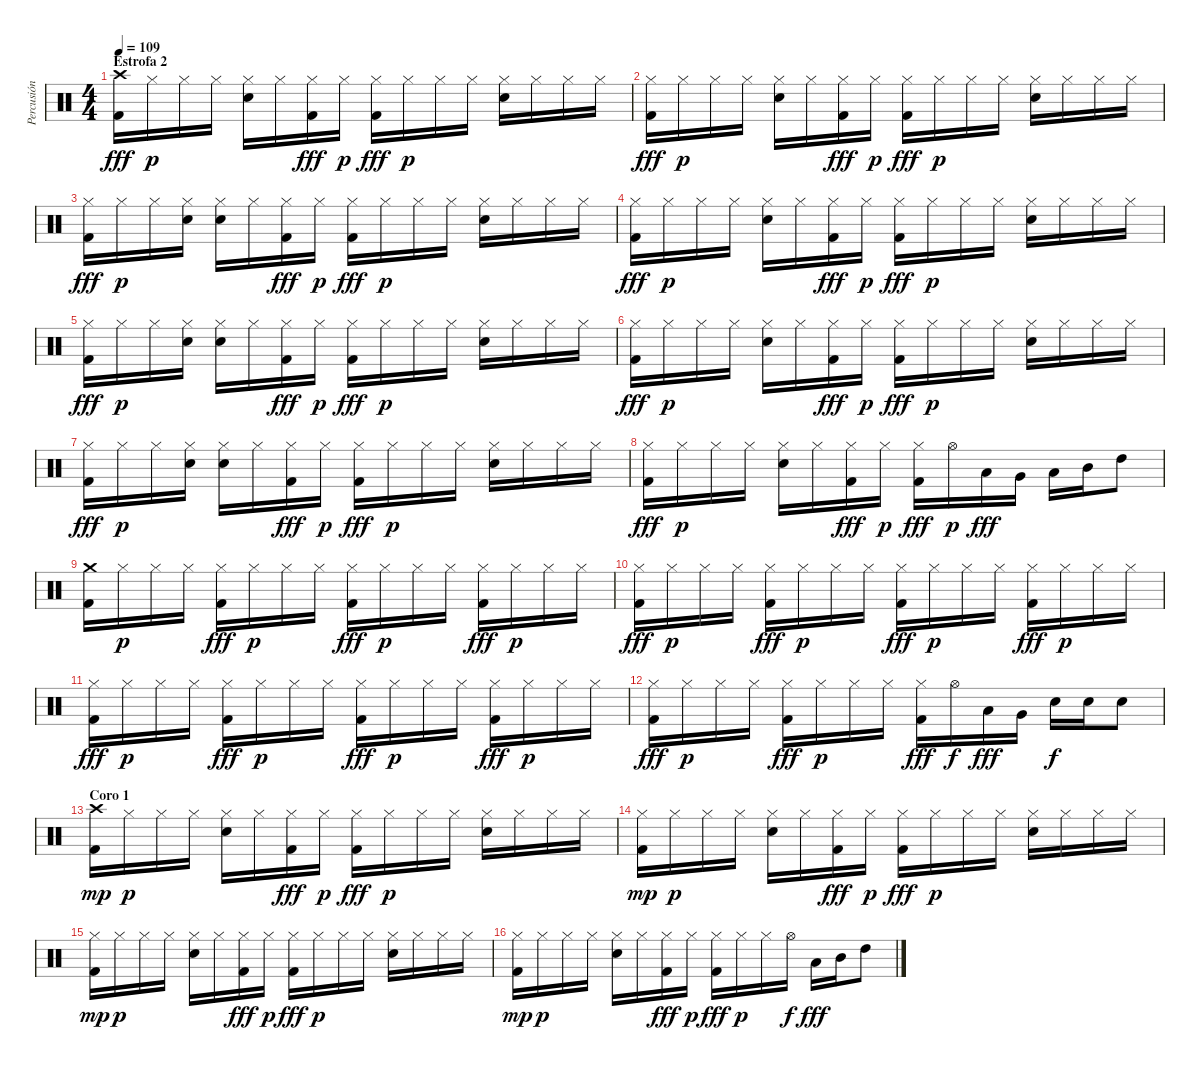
\track ("Percusión" "Percusión") {instrument percussion}
\staff {score}
\articulation defaults
\ts (4 4)
\section ("" "Estrofa 2")
\tempo 109
\clef neutral
\ks c
("Crash high (hit)" "Kick (hit) 2").16{dy fff} "Hi-Hat (closed)".16{dy p} "Hi-Hat (closed)".16 "Hi-Hat (closed)".16 ("Hi-Hat (closed)" "Snare (hit) 2").16 "Hi-Hat (closed)".16 ("Hi-Hat (closed)" "Kick (hit) 2").16{dy fff} "Hi-Hat (closed)".16{dy p} ("Hi-Hat (closed)" "Kick (hit) 2").16{dy fff} "Hi-Hat (closed)".16{dy p} "Hi-Hat (closed)".16 "Hi-Hat (closed)".16 ("Hi-Hat (closed)" "Snare (hit) 2").16 "Hi-Hat (closed)".16 "Hi-Hat (closed)".16 "Hi-Hat (closed)".16 |
("Hi-Hat (closed)" "Kick (hit) 2").16{dy fff} "Hi-Hat (closed)".16{dy p} "Hi-Hat (closed)".16 "Hi-Hat (closed)".16 ("Hi-Hat (closed)" "Snare (hit) 2").16 "Hi-Hat (closed)".16 ("Hi-Hat (closed)" "Kick (hit) 2").16{dy fff} "Hi-Hat (closed)".16{dy p} ("Hi-Hat (closed)" "Kick (hit) 2").16{dy fff} "Hi-Hat (closed)".16{dy p} "Hi-Hat (closed)".16 "Hi-Hat (closed)".16 ("Hi-Hat (closed)" "Snare (hit) 2").16 "Hi-Hat (closed)".16 "Hi-Hat (closed)".16 "Hi-Hat (closed)".16 |
("Hi-Hat (closed)" "Kick (hit) 2").16{dy fff} "Hi-Hat (closed)".16{dy p} "Hi-Hat (closed)".16 ("Hi-Hat (closed)" "Snare (hit) 2").16 ("Hi-Hat (closed)" "Snare (hit) 2").16 "Hi-Hat (closed)".16 ("Hi-Hat (closed)" "Kick (hit) 2").16{dy fff} "Hi-Hat (closed)".16{dy p} ("Hi-Hat (closed)" "Kick (hit) 2").16{dy fff} "Hi-Hat (closed)".16{dy p} "Hi-Hat (closed)".16 "Hi-Hat (closed)".16 ("Hi-Hat (closed)" "Snare (hit) 2").16 "Hi-Hat (closed)".16 "Hi-Hat (closed)".16 "Hi-Hat (closed)".16 |
("Hi-Hat (closed)" "Kick (hit) 2").16{dy fff} "Hi-Hat (closed)".16{dy p} "Hi-Hat (closed)".16 "Hi-Hat (closed)".16 ("Hi-Hat (closed)" "Snare (hit) 2").16 "Hi-Hat (closed)".16 ("Hi-Hat (closed)" "Kick (hit) 2").16{dy fff} "Hi-Hat (closed)".16{dy p} ("Hi-Hat (closed)" "Kick (hit) 2").16{dy fff} "Hi-Hat (closed)".16{dy p} "Hi-Hat (closed)".16 "Hi-Hat (closed)".16 ("Hi-Hat (closed)" "Snare (hit) 2").16 "Hi-Hat (closed)".16 "Hi-Hat (closed)".16 "Hi-Hat (closed)".16 |
("Hi-Hat (closed)" "Kick (hit) 2").16{dy fff} "Hi-Hat (closed)".16{dy p} "Hi-Hat (closed)".16 ("Hi-Hat (closed)" "Snare (hit) 2").16 ("Hi-Hat (closed)" "Snare (hit) 2").16 "Hi-Hat (closed)".16 ("Hi-Hat (closed)" "Kick (hit) 2").16{dy fff} "Hi-Hat (closed)".16{dy p} ("Hi-Hat (closed)" "Kick (hit) 2").16{dy fff} "Hi-Hat (closed)".16{dy p} "Hi-Hat (closed)".16 "Hi-Hat (closed)".16 ("Hi-Hat (closed)" "Snare (hit) 2").16 "Hi-Hat (closed)".16 "Hi-Hat (closed)".16 "Hi-Hat (closed)".16 |
("Hi-Hat (closed)" "Kick (hit) 2").16{dy fff} "Hi-Hat (closed)".16{dy p} "Hi-Hat (closed)".16 "Hi-Hat (closed)".16 ("Hi-Hat (closed)" "Snare (hit) 2").16 "Hi-Hat (closed)".16 ("Hi-Hat (closed)" "Kick (hit) 2").16{dy fff} "Hi-Hat (closed)".16{dy p} ("Hi-Hat (closed)" "Kick (hit) 2").16{dy fff} "Hi-Hat (closed)".16{dy p} "Hi-Hat (closed)".16 "Hi-Hat (closed)".16 ("Hi-Hat (closed)" "Snare (hit) 2").16 "Hi-Hat (closed)".16 "Hi-Hat (closed)".16 "Hi-Hat (closed)".16 |
("Hi-Hat (closed)" "Kick (hit) 2").16{dy fff} "Hi-Hat (closed)".16{dy p} "Hi-Hat (closed)".16 ("Hi-Hat (closed)" "Snare (hit) 2").16 ("Hi-Hat (closed)" "Snare (hit) 2").16 "Hi-Hat (closed)".16 ("Hi-Hat (closed)" "Kick (hit) 2").16{dy fff} "Hi-Hat (closed)".16{dy p} ("Hi-Hat (closed)" "Kick (hit) 2").16{dy fff} "Hi-Hat (closed)".16{dy p} "Hi-Hat (closed)".16 "Hi-Hat (closed)".16 ("Hi-Hat (closed)" "Snare (hit) 2").16 "Hi-Hat (closed)".16 "Hi-Hat (closed)".16 "Hi-Hat (closed)".16 |
("Hi-Hat (closed)" "Kick (hit) 2").16{dy fff} "Hi-Hat (closed)".16{dy p} "Hi-Hat (closed)".16 "Hi-Hat (closed)".16 ("Hi-Hat (closed)" "Snare (hit) 2").16 "Hi-Hat (closed)".16 ("Hi-Hat (closed)" "Kick (hit) 2").16{dy fff} "Hi-Hat (closed)".16{dy p} ("Hi-Hat (closed)" "Kick (hit) 2").16{dy fff} "Hi-Hat (open)".16{dy p} "Low Floor Tom (hit)".16{dy fff} "Very Low Tom (hit)".16 "Low Tom (hit)".16 "Mid Tom (hit)".16 "High Tom (hit)".8 |
("Crash medium (hit)" "Kick (hit) 2").16 "Hi-Hat (closed)".16{dy p} "Hi-Hat (closed)".16 "Hi-Hat (closed)".16 ("Hi-Hat (closed)" "Kick (hit) 2").16{dy fff} "Hi-Hat (closed)".16{dy p} "Hi-Hat (closed)".16 "Hi-Hat (closed)".16 ("Hi-Hat (closed)" "Kick (hit) 2").16{dy fff} "Hi-Hat (closed)".16{dy p} "Hi-Hat (closed)".16 "Hi-Hat (closed)".16 ("Hi-Hat (closed)" "Kick (hit) 2").16{dy fff} "Hi-Hat (closed)".16{dy p} "Hi-Hat (closed)".16 "Hi-Hat (closed)".16 |
("Hi-Hat (closed)" "Kick (hit) 2").16{dy fff} "Hi-Hat (closed)".16{dy p} "Hi-Hat (closed)".16 "Hi-Hat (closed)".16 ("Hi-Hat (closed)" "Kick (hit) 2").16{dy fff} "Hi-Hat (closed)".16{dy p} "Hi-Hat (closed)".16 "Hi-Hat (closed)".16 ("Hi-Hat (closed)" "Kick (hit) 2").16{dy fff} "Hi-Hat (closed)".16{dy p} "Hi-Hat (closed)".16 "Hi-Hat (closed)".16 ("Hi-Hat (closed)" "Kick (hit) 2").16{dy fff} "Hi-Hat (closed)".16{dy p} "Hi-Hat (closed)".16 "Hi-Hat (closed)".16 |
("Hi-Hat (closed)" "Kick (hit) 2").16{dy fff} "Hi-Hat (closed)".16{dy p} "Hi-Hat (closed)".16 "Hi-Hat (closed)".16 ("Hi-Hat (closed)" "Kick (hit) 2").16{dy fff} "Hi-Hat (closed)".16{dy p} "Hi-Hat (closed)".16 "Hi-Hat (closed)".16 ("Hi-Hat (closed)" "Kick (hit) 2").16{dy fff} "Hi-Hat (closed)".16{dy p} "Hi-Hat (closed)".16 "Hi-Hat (closed)".16 ("Hi-Hat (closed)" "Kick (hit) 2").16{dy fff} "Hi-Hat (closed)".16{dy p} "Hi-Hat (closed)".16 "Hi-Hat (closed)".16 |
("Hi-Hat (closed)" "Kick (hit) 2").16{dy fff} "Hi-Hat (closed)".16{dy p} "Hi-Hat (closed)".16 "Hi-Hat (closed)".16 ("Hi-Hat (closed)" "Kick (hit) 2").16{dy fff} "Hi-Hat (closed)".16{dy p} "Hi-Hat (closed)".16 "Hi-Hat (closed)".16 ("Hi-Hat (closed)" "Kick (hit) 2").16{dy fff} "Hi-Hat (open)".16{dy f} "Low Floor Tom (hit)".16{dy fff} "Very Low Tom (hit)".16 "Snare (hit) 2".16{dy f} "Snare (hit) 2".16 "Snare (hit) 2".8 |
\section ("" "Coro 1")
("Crash high (hit)" "Kick (hit) 2").16{dy mp} "Hi-Hat (closed)".16{dy p} "Hi-Hat (closed)".16 "Hi-Hat (closed)".16 ("Hi-Hat (closed)" "Snare (hit) 2").16 "Hi-Hat (closed)".16 ("Hi-Hat (closed)" "Kick (hit) 2").16{dy fff} "Hi-Hat (closed)".16{dy p} ("Hi-Hat (closed)" "Kick (hit) 2").16{dy fff} "Hi-Hat (closed)".16{dy p} "Hi-Hat (closed)".16 "Hi-Hat (closed)".16 ("Hi-Hat (closed)" "Snare (hit) 2").16 "Hi-Hat (closed)".16 "Hi-Hat (closed)".16 "Hi-Hat (closed)".16 |
("Hi-Hat (closed)" "Kick (hit) 2").16{dy mp} "Hi-Hat (closed)".16{dy p} "Hi-Hat (closed)".16 "Hi-Hat (closed)".16 ("Hi-Hat (closed)" "Snare (hit) 2").16 "Hi-Hat (closed)".16 ("Hi-Hat (closed)" "Kick (hit) 2").16{dy fff} "Hi-Hat (closed)".16{dy p} ("Hi-Hat (closed)" "Kick (hit) 2").16{dy fff} "Hi-Hat (closed)".16{dy p} "Hi-Hat (closed)".16 "Hi-Hat (closed)".16 ("Hi-Hat (closed)" "Snare (hit) 2").16 "Hi-Hat (closed)".16 "Hi-Hat (closed)".16 "Hi-Hat (closed)".16 |
("Hi-Hat (closed)" "Kick (hit) 2").16{dy mp} "Hi-Hat (closed)".16{dy p} "Hi-Hat (closed)".16 "Hi-Hat (closed)".16 ("Hi-Hat (closed)" "Snare (hit) 2").16 "Hi-Hat (closed)".16 ("Hi-Hat (closed)" "Kick (hit) 2").16{dy fff} "Hi-Hat (closed)".16{dy p} ("Hi-Hat (closed)" "Kick (hit) 2").16{dy fff} "Hi-Hat (closed)".16{dy p} "Hi-Hat (closed)".16 "Hi-Hat (closed)".16 ("Hi-Hat (closed)" "Snare (hit) 2").16 "Hi-Hat (closed)".16 "Hi-Hat (closed)".16 "Hi-Hat (closed)".16 |
("Hi-Hat (closed)" "Kick (hit) 2").16{dy mp} "Hi-Hat (closed)".16{dy p} "Hi-Hat (closed)".16 "Hi-Hat (closed)".16 ("Hi-Hat (closed)" "Snare (hit) 2").16 "Hi-Hat (closed)".16 ("Hi-Hat (closed)" "Kick (hit) 2").16{dy fff} "Hi-Hat (closed)".16{dy p} ("Hi-Hat (closed)" "Kick (hit) 2").16{dy fff} "Hi-Hat (closed)".16{dy p} "Hi-Hat (closed)".16 "Hi-Hat (open)".16{dy f} "Low Tom (hit)".16{dy fff} "Mid Tom (hit)".16 "High Tom (hit)".8
